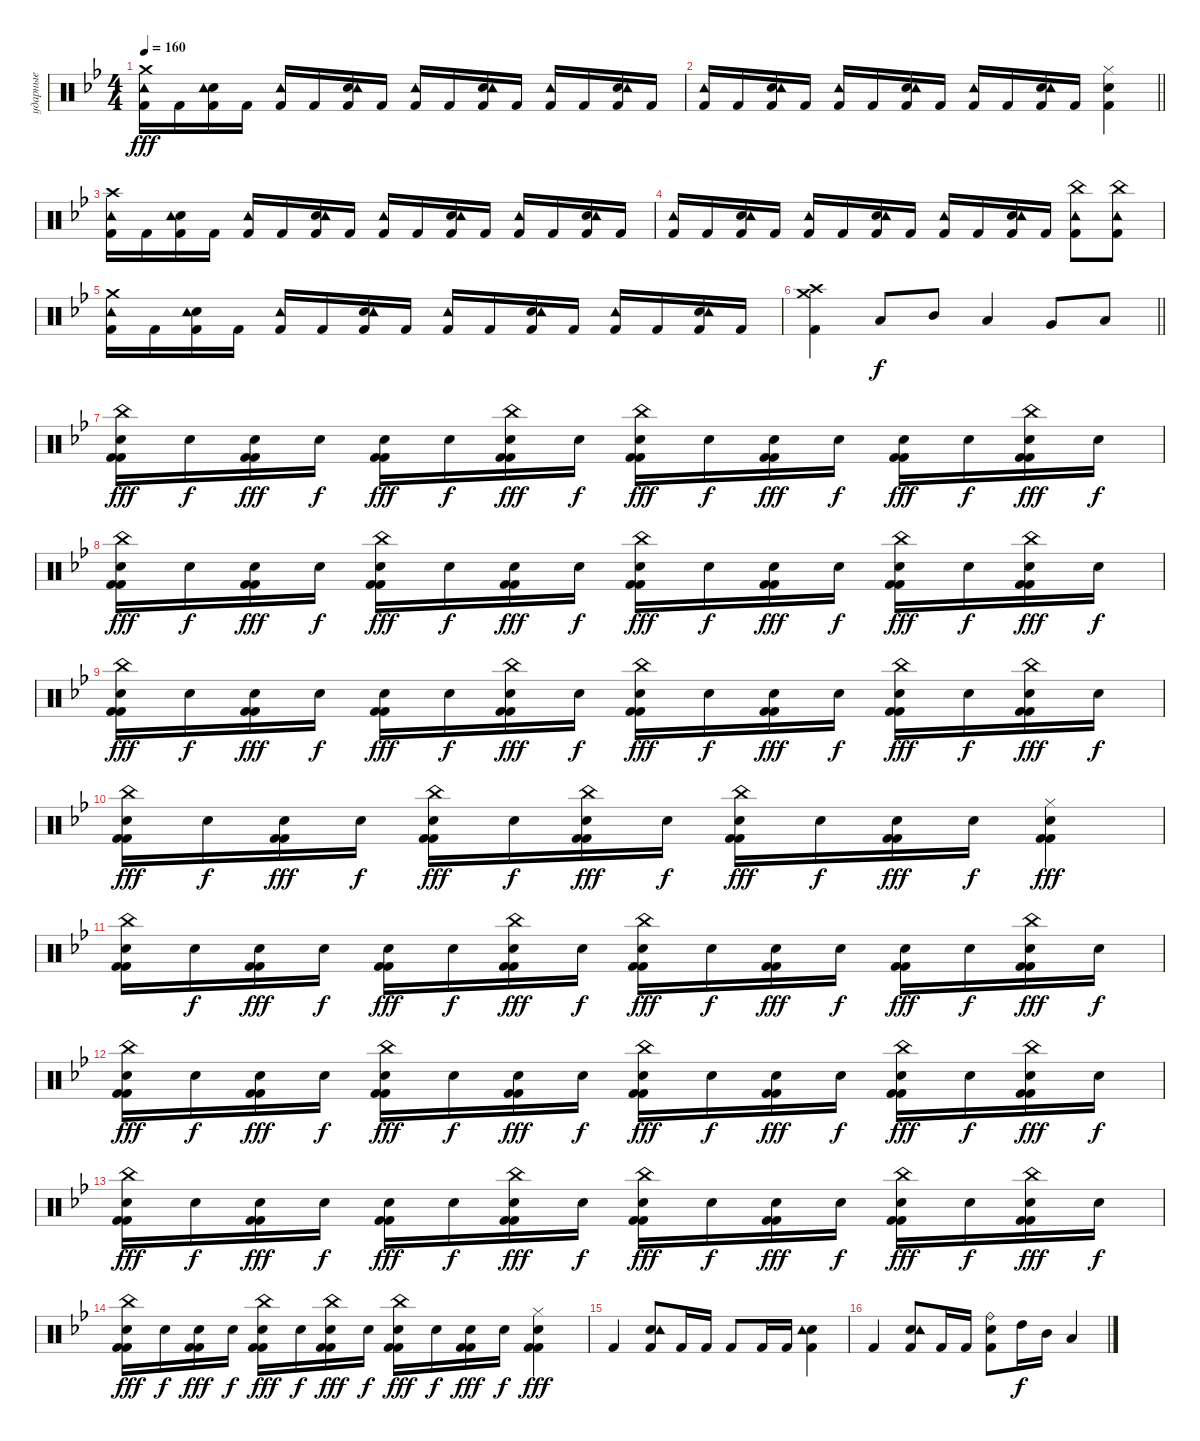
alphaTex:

\track ("ударные" "ударные") {instrument percussion}
\staff {score}
\articulation defaults
\ts (4 4)
\tempo 160
\clef neutral
\ks gminor
("Crash medium (hit)" "Tambourine (hit)" "Kick (hit) 2").16{dy fff} "Kick (hit) 2".16 ("Electric Snare (hit)" "Tambourine (hit)" "Kick (hit) 2").16 "Kick (hit) 2".16 ("Tambourine (hit)" "Kick (hit) 2").16 "Kick (hit) 2".16 ("Electric Snare (hit)" "Tambourine (hit)" "Kick (hit) 2").16 "Kick (hit) 2".16 ("Tambourine (hit)" "Kick (hit) 2").16 "Kick (hit) 2".16 ("Electric Snare (hit)" "Tambourine (hit)" "Kick (hit) 2").16 "Kick (hit) 2".16 ("Tambourine (hit)" "Kick (hit) 2").16 "Kick (hit) 2".16 ("Electric Snare (hit)" "Tambourine (hit)" "Kick (hit) 2").16 "Kick (hit) 2".16 |
\barLineRight lightlight
("Tambourine (hit)" "Kick (hit) 2").16 "Kick (hit) 2".16 ("Electric Snare (hit)" "Tambourine (hit)" "Kick (hit) 2").16 "Kick (hit) 2".16 ("Tambourine (hit)" "Kick (hit) 2").16 "Kick (hit) 2".16 ("Electric Snare (hit)" "Tambourine (hit)" "Kick (hit) 2").16 "Kick (hit) 2".16 ("Tambourine (hit)" "Kick (hit) 2").16 "Kick (hit) 2".16 ("Electric Snare (hit)" "Tambourine (hit)" "Kick (hit) 2").16 "Kick (hit) 2".16 ("Electric Snare (hit)" "Hi-Hat (closed)" "Kick (hit) 2").4 |
("Crash high (hit)" "Tambourine (hit)" "Kick (hit) 2").16 "Kick (hit) 2".16 ("Electric Snare (hit)" "Tambourine (hit)" "Kick (hit) 2").16 "Kick (hit) 2".16 ("Tambourine (hit)" "Kick (hit) 2").16 "Kick (hit) 2".16 ("Electric Snare (hit)" "Tambourine (hit)" "Kick (hit) 2").16 "Kick (hit) 2".16 ("Tambourine (hit)" "Kick (hit) 2").16 "Kick (hit) 2".16 ("Electric Snare (hit)" "Tambourine (hit)" "Kick (hit) 2").16 "Kick (hit) 2".16 ("Tambourine (hit)" "Kick (hit) 2").16 "Kick (hit) 2".16 ("Electric Snare (hit)" "Tambourine (hit)" "Kick (hit) 2").16 "Kick (hit) 2".16 |
("Tambourine (hit)" "Kick (hit) 2").16 "Kick (hit) 2".16 ("Electric Snare (hit)" "Tambourine (hit)" "Kick (hit) 2").16 "Kick (hit) 2".16 ("Tambourine (hit)" "Kick (hit) 2").16 "Kick (hit) 2".16 ("Electric Snare (hit)" "Tambourine (hit)" "Kick (hit) 2").16 "Kick (hit) 2".16 ("Tambourine (hit)" "Kick (hit) 2").16 "Kick (hit) 2".16 ("Electric Snare (hit)" "Tambourine (hit)" "Kick (hit) 2").16 "Kick (hit) 2".16 ("China (hit)" "Tambourine (hit)" "Kick (hit) 2").8 ("China (hit)" "Tambourine (hit)" "Kick (hit) 2").8 |
("Crash medium (hit)" "Tambourine (hit)" "Kick (hit) 2").16 "Kick (hit) 2".16 ("Electric Snare (hit)" "Tambourine (hit)" "Kick (hit) 2").16 "Kick (hit) 2".16 ("Tambourine (hit)" "Kick (hit) 2").16 "Kick (hit) 2".16 ("Electric Snare (hit)" "Tambourine (hit)" "Kick (hit) 2").16 "Kick (hit) 2".16 ("Tambourine (hit)" "Kick (hit) 2").16 "Kick (hit) 2".16 ("Electric Snare (hit)" "Tambourine (hit)" "Kick (hit) 2").16 "Kick (hit) 2".16 ("Tambourine (hit)" "Kick (hit) 2").16 "Kick (hit) 2".16 ("Electric Snare (hit)" "Tambourine (hit)" "Kick (hit) 2").16 "Kick (hit) 2".16 |
\barLineRight lightlight
("Crash high (hit)" "Crash medium (hit)" "Kick (hit) 2").4 "Low Tom (hit)".8{dy f} "Mid Tom (hit)".8 "Low Tom (hit)".4 "Very Low Tom (hit)".8 "Low Floor Tom (hit)".8 |
("Kick (hit) 2" "Electric Snare (hit)" "Kick (hit) 2" "China (hit)").16{dy fff} "Electric Snare (hit)".16{dy f} ("Kick (hit) 2" "Electric Snare (hit)" "Kick (hit) 2").16{dy fff} "Electric Snare (hit)".16{dy f} ("Kick (hit) 2" "Electric Snare (hit)" "Kick (hit) 2").16{dy fff} "Electric Snare (hit)".16{dy f} ("Kick (hit) 2" "Electric Snare (hit)" "Kick (hit) 2" "China (hit)").16{dy fff} "Electric Snare (hit)".16{dy f} ("Kick (hit) 2" "Electric Snare (hit)" "Kick (hit) 2" "China (hit)").16{dy fff} "Electric Snare (hit)".16{dy f} ("Kick (hit) 2" "Electric Snare (hit)" "Kick (hit) 2").16{dy fff} "Electric Snare (hit)".16{dy f} ("Kick (hit) 2" "Electric Snare (hit)" "Kick (hit) 2").16{dy fff} "Electric Snare (hit)".16{dy f} ("Kick (hit) 2" "Electric Snare (hit)" "Kick (hit) 2" "China (hit)").16{dy fff} "Electric Snare (hit)".16{dy f} |
("Kick (hit) 2" "Electric Snare (hit)" "Kick (hit) 2" "China (hit)").16{dy fff} "Electric Snare (hit)".16{dy f} ("Kick (hit) 2" "Electric Snare (hit)" "Kick (hit) 2").16{dy fff} "Electric Snare (hit)".16{dy f} ("Kick (hit) 2" "Electric Snare (hit)" "Kick (hit) 2" "China (hit)").16{dy fff} "Electric Snare (hit)".16{dy f} ("Kick (hit) 2" "Electric Snare (hit)" "Kick (hit) 2").16{dy fff} "Electric Snare (hit)".16{dy f} ("Kick (hit) 2" "Electric Snare (hit)" "Kick (hit) 2" "China (hit)").16{dy fff} "Electric Snare (hit)".16{dy f} ("Kick (hit) 2" "Electric Snare (hit)" "Kick (hit) 2").16{dy fff} "Electric Snare (hit)".16{dy f} ("Kick (hit) 2" "Electric Snare (hit)" "Kick (hit) 2" "China (hit)").16{dy fff} "Electric Snare (hit)".16{dy f} ("Kick (hit) 2" "Electric Snare (hit)" "Kick (hit) 2" "China (hit)").16{dy fff} "Electric Snare (hit)".16{dy f} |
("Kick (hit) 2" "Electric Snare (hit)" "Kick (hit) 2" "China (hit)").16{dy fff} "Electric Snare (hit)".16{dy f} ("Kick (hit) 2" "Electric Snare (hit)" "Kick (hit) 2").16{dy fff} "Electric Snare (hit)".16{dy f} ("Kick (hit) 2" "Electric Snare (hit)" "Kick (hit) 2").16{dy fff} "Electric Snare (hit)".16{dy f} ("Kick (hit) 2" "Electric Snare (hit)" "Kick (hit) 2" "China (hit)").16{dy fff} "Electric Snare (hit)".16{dy f} ("Kick (hit) 2" "Electric Snare (hit)" "Kick (hit) 2" "China (hit)").16{dy fff} "Electric Snare (hit)".16{dy f} ("Kick (hit) 2" "Electric Snare (hit)" "Kick (hit) 2").16{dy fff} "Electric Snare (hit)".16{dy f} ("Kick (hit) 2" "Electric Snare (hit)" "Kick (hit) 2" "China (hit)").16{dy fff} "Electric Snare (hit)".16{dy f} ("Kick (hit) 2" "Electric Snare (hit)" "Kick (hit) 2" "China (hit)").16{dy fff} "Electric Snare (hit)".16{dy f} |
("Kick (hit) 2" "Electric Snare (hit)" "Kick (hit) 2" "China (hit)").16{dy fff} "Electric Snare (hit)".16{dy f} ("Kick (hit) 2" "Electric Snare (hit)" "Kick (hit) 2").16{dy fff} "Electric Snare (hit)".16{dy f} ("Kick (hit) 2" "Electric Snare (hit)" "Kick (hit) 2" "China (hit)").16{dy fff} "Electric Snare (hit)".16{dy f} ("Kick (hit) 2" "Electric Snare (hit)" "Kick (hit) 2" "China (hit)").16{dy fff} "Electric Snare (hit)".16{dy f} ("Kick (hit) 2" "Electric Snare (hit)" "Kick (hit) 2" "China (hit)").16{dy fff} "Electric Snare (hit)".16{dy f} ("Kick (hit) 2" "Electric Snare (hit)" "Kick (hit) 2").16{dy fff} "Electric Snare (hit)".16{dy f} ("Kick (hit) 2" "Electric Snare (hit)" "Kick (hit) 2" "Hi-Hat (closed)").4{dy fff} |
("Kick (hit) 2" "Electric Snare (hit)" "Kick (hit) 2" "China (hit)").16 "Electric Snare (hit)".16{dy f} ("Kick (hit) 2" "Electric Snare (hit)" "Kick (hit) 2").16{dy fff} "Electric Snare (hit)".16{dy f} ("Kick (hit) 2" "Electric Snare (hit)" "Kick (hit) 2").16{dy fff} "Electric Snare (hit)".16{dy f} ("Kick (hit) 2" "Electric Snare (hit)" "Kick (hit) 2" "China (hit)").16{dy fff} "Electric Snare (hit)".16{dy f} ("Kick (hit) 2" "Electric Snare (hit)" "Kick (hit) 2" "China (hit)").16{dy fff} "Electric Snare (hit)".16{dy f} ("Kick (hit) 2" "Electric Snare (hit)" "Kick (hit) 2").16{dy fff} "Electric Snare (hit)".16{dy f} ("Kick (hit) 2" "Electric Snare (hit)" "Kick (hit) 2").16{dy fff} "Electric Snare (hit)".16{dy f} ("Kick (hit) 2" "Electric Snare (hit)" "Kick (hit) 2" "China (hit)").16{dy fff} "Electric Snare (hit)".16{dy f} |
("Kick (hit) 2" "Electric Snare (hit)" "Kick (hit) 2" "China (hit)").16{dy fff} "Electric Snare (hit)".16{dy f} ("Kick (hit) 2" "Electric Snare (hit)" "Kick (hit) 2").16{dy fff} "Electric Snare (hit)".16{dy f} ("Kick (hit) 2" "Electric Snare (hit)" "Kick (hit) 2" "China (hit)").16{dy fff} "Electric Snare (hit)".16{dy f} ("Kick (hit) 2" "Electric Snare (hit)" "Kick (hit) 2").16{dy fff} "Electric Snare (hit)".16{dy f} ("Kick (hit) 2" "Electric Snare (hit)" "Kick (hit) 2" "China (hit)").16{dy fff} "Electric Snare (hit)".16{dy f} ("Kick (hit) 2" "Electric Snare (hit)" "Kick (hit) 2").16{dy fff} "Electric Snare (hit)".16{dy f} ("Kick (hit) 2" "Electric Snare (hit)" "Kick (hit) 2" "China (hit)").16{dy fff} "Electric Snare (hit)".16{dy f} ("Kick (hit) 2" "Electric Snare (hit)" "Kick (hit) 2" "China (hit)").16{dy fff} "Electric Snare (hit)".16{dy f} |
("Kick (hit) 2" "Electric Snare (hit)" "Kick (hit) 2" "China (hit)").16{dy fff} "Electric Snare (hit)".16{dy f} ("Kick (hit) 2" "Electric Snare (hit)" "Kick (hit) 2").16{dy fff} "Electric Snare (hit)".16{dy f} ("Kick (hit) 2" "Electric Snare (hit)" "Kick (hit) 2").16{dy fff} "Electric Snare (hit)".16{dy f} ("Kick (hit) 2" "Electric Snare (hit)" "Kick (hit) 2" "China (hit)").16{dy fff} "Electric Snare (hit)".16{dy f} ("Kick (hit) 2" "Electric Snare (hit)" "Kick (hit) 2" "China (hit)").16{dy fff} "Electric Snare (hit)".16{dy f} ("Kick (hit) 2" "Electric Snare (hit)" "Kick (hit) 2").16{dy fff} "Electric Snare (hit)".16{dy f} ("Kick (hit) 2" "Electric Snare (hit)" "Kick (hit) 2" "China (hit)").16{dy fff} "Electric Snare (hit)".16{dy f} ("Kick (hit) 2" "Electric Snare (hit)" "Kick (hit) 2" "China (hit)").16{dy fff} "Electric Snare (hit)".16{dy f} |
("Kick (hit) 2" "Electric Snare (hit)" "Kick (hit) 2" "China (hit)").16{dy fff} "Electric Snare (hit)".16{dy f} ("Kick (hit) 2" "Electric Snare (hit)" "Kick (hit) 2").16{dy fff} "Electric Snare (hit)".16{dy f} ("Kick (hit) 2" "Electric Snare (hit)" "Kick (hit) 2" "China (hit)").16{dy fff} "Electric Snare (hit)".16{dy f} ("Kick (hit) 2" "Electric Snare (hit)" "Kick (hit) 2" "China (hit)").16{dy fff} "Electric Snare (hit)".16{dy f} ("Kick (hit) 2" "Electric Snare (hit)" "Kick (hit) 2" "China (hit)").16{dy fff} "Electric Snare (hit)".16{dy f} ("Kick (hit) 2" "Electric Snare (hit)" "Kick (hit) 2").16{dy fff} "Electric Snare (hit)".16{dy f} ("Kick (hit) 2" "Electric Snare (hit)" "Kick (hit) 2" "Hi-Hat (closed)").4{dy fff} |
"Kick (hit) 2".4 ("Electric Snare (hit)" "Tambourine (hit)" "Kick (hit) 2").8 "Kick (hit) 2".16 "Kick (hit) 2".16 "Kick (hit) 2".8 "Kick (hit) 2".16 "Kick (hit) 2".16 ("Electric Snare (hit)" "Tambourine (hit)" "Kick (hit) 2").4 |
"Kick (hit) 2".4 ("Electric Snare (hit)" "Tambourine (hit)" "Kick (hit) 2").8 "Kick (hit) 2".16 "Kick (hit) 2".16 ("Ride (bell)" "Electric Snare (hit)" "Kick (hit) 2").8 "High Tom (hit)".16{dy f} "Mid Tom (hit)".16 "Low Tom (hit)".4
